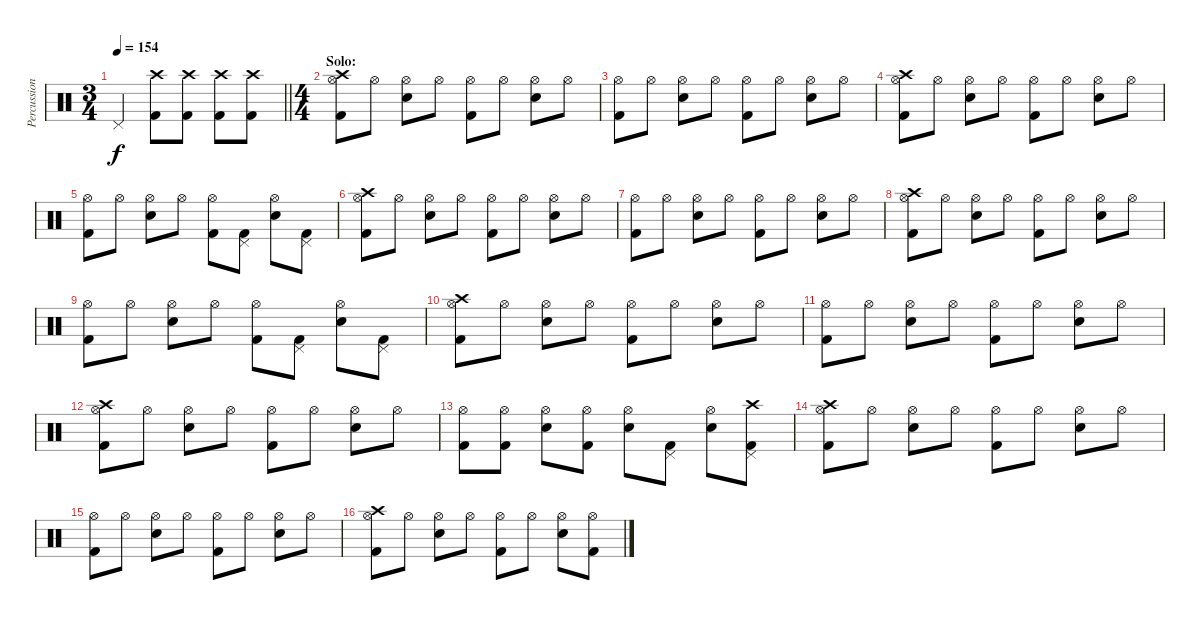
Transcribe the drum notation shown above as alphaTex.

\track ("Percussion" "Percussion") {instrument percussion}
\staff {score}
\articulation defaults
\ts (3 4)
\tempo 154
\clef neutral
\barLineRight lightlight
\ks c "Pedal Hi-Hat (hit)".4{dy f}
("Crash high (hit)" "Kick (hit) 2").8 ("Crash high (hit)" "Kick (hit) 2").8 ("Crash high (hit)" "Kick (hit) 2").8 ("Crash high (hit)" "Kick (hit) 2").8 |
\ts (4 4)
\section ("" "Solo:")
("Hi-Hat (open)" "Crash high (hit)" "Kick (hit) 2").8 "Hi-Hat (open)".8 ("Hi-Hat (open)" "Snare (hit) 2").8 "Hi-Hat (open)".8 ("Hi-Hat (open)" "Kick (hit) 2").8 "Hi-Hat (open)".8 ("Hi-Hat (open)" "Snare (hit) 2").8 "Hi-Hat (open)".8 |
("Hi-Hat (open)" "Kick (hit) 2").8 "Hi-Hat (open)".8 ("Hi-Hat (open)" "Snare (hit) 2").8 "Hi-Hat (open)".8 ("Hi-Hat (open)" "Kick (hit) 2").8 "Hi-Hat (open)".8 ("Hi-Hat (open)" "Snare (hit) 2").8 "Hi-Hat (open)".8 |
("Hi-Hat (open)" "Crash high (hit)" "Kick (hit) 2").8 "Hi-Hat (open)".8 ("Hi-Hat (open)" "Snare (hit) 2").8 "Hi-Hat (open)".8 ("Hi-Hat (open)" "Kick (hit) 2").8 "Hi-Hat (open)".8 ("Hi-Hat (open)" "Snare (hit) 2").8 "Hi-Hat (open)".8 |
("Hi-Hat (open)" "Kick (hit) 2").8 "Hi-Hat (open)".8 ("Hi-Hat (open)" "Snare (hit) 2").8 "Hi-Hat (open)".8 ("Hi-Hat (open)" "Kick (hit) 2").8 ("Pedal Hi-Hat (hit)" "Kick (hit) 2").8 ("Hi-Hat (open)" "Snare (hit) 2").8 ("Pedal Hi-Hat (hit)" "Kick (hit) 2").8 |
("Hi-Hat (open)" "Crash high (hit)" "Kick (hit) 2").8 "Hi-Hat (open)".8 ("Hi-Hat (open)" "Snare (hit) 2").8 "Hi-Hat (open)".8 ("Hi-Hat (open)" "Kick (hit) 2").8 "Hi-Hat (open)".8 ("Hi-Hat (open)" "Snare (hit) 2").8 "Hi-Hat (open)".8 |
("Hi-Hat (open)" "Kick (hit) 2").8 "Hi-Hat (open)".8 ("Hi-Hat (open)" "Snare (hit) 2").8 "Hi-Hat (open)".8 ("Hi-Hat (open)" "Kick (hit) 2").8 "Hi-Hat (open)".8 ("Hi-Hat (open)" "Snare (hit) 2").8 "Hi-Hat (open)".8 |
("Hi-Hat (open)" "Crash high (hit)" "Kick (hit) 2").8 "Hi-Hat (open)".8 ("Hi-Hat (open)" "Snare (hit) 2").8 "Hi-Hat (open)".8 ("Hi-Hat (open)" "Kick (hit) 2").8 "Hi-Hat (open)".8 ("Hi-Hat (open)" "Snare (hit) 2").8 "Hi-Hat (open)".8 |
("Hi-Hat (open)" "Kick (hit) 2").8 "Hi-Hat (open)".8 ("Hi-Hat (open)" "Snare (hit) 2").8 "Hi-Hat (open)".8 ("Hi-Hat (open)" "Kick (hit) 2").8 ("Pedal Hi-Hat (hit)" "Kick (hit) 2").8 ("Hi-Hat (open)" "Snare (hit) 2").8 ("Pedal Hi-Hat (hit)" "Kick (hit) 2").8 |
("Hi-Hat (open)" "Crash high (hit)" "Kick (hit) 2").8 "Hi-Hat (open)".8 ("Hi-Hat (open)" "Snare (hit) 2").8 "Hi-Hat (open)".8 ("Hi-Hat (open)" "Kick (hit) 2").8 "Hi-Hat (open)".8 ("Hi-Hat (open)" "Snare (hit) 2").8 "Hi-Hat (open)".8 |
("Hi-Hat (open)" "Kick (hit) 2").8 "Hi-Hat (open)".8 ("Hi-Hat (open)" "Snare (hit) 2").8 "Hi-Hat (open)".8 ("Hi-Hat (open)" "Kick (hit) 2").8 "Hi-Hat (open)".8 ("Hi-Hat (open)" "Snare (hit) 2").8 "Hi-Hat (open)".8 |
("Hi-Hat (open)" "Crash high (hit)" "Kick (hit) 2").8 "Hi-Hat (open)".8 ("Hi-Hat (open)" "Snare (hit) 2").8 "Hi-Hat (open)".8 ("Hi-Hat (open)" "Kick (hit) 2").8 "Hi-Hat (open)".8 ("Hi-Hat (open)" "Snare (hit) 2").8 "Hi-Hat (open)".8 |
("Hi-Hat (open)" "Kick (hit) 2").8 ("Hi-Hat (open)" "Kick (hit) 2").8 ("Hi-Hat (open)" "Snare (hit) 2").8 ("Hi-Hat (open)" "Kick (hit) 2").8 ("Hi-Hat (open)" "Snare (hit) 2").8 ("Pedal Hi-Hat (hit)" "Kick (hit) 2").8 ("Hi-Hat (open)" "Snare (hit) 2").8 ("Pedal Hi-Hat (hit)" "Crash high (hit)" "Kick (hit) 2").8 |
("Hi-Hat (open)" "Crash high (hit)" "Kick (hit) 2").8 "Hi-Hat (open)".8 ("Hi-Hat (open)" "Snare (hit) 2").8 "Hi-Hat (open)".8 ("Hi-Hat (open)" "Kick (hit) 2").8 "Hi-Hat (open)".8 ("Hi-Hat (open)" "Snare (hit) 2").8 "Hi-Hat (open)".8 |
("Hi-Hat (open)" "Kick (hit) 2").8 "Hi-Hat (open)".8 ("Hi-Hat (open)" "Snare (hit) 2").8 "Hi-Hat (open)".8 ("Hi-Hat (open)" "Kick (hit) 2").8 "Hi-Hat (open)".8 ("Hi-Hat (open)" "Snare (hit) 2").8 "Hi-Hat (open)".8 |
("Hi-Hat (open)" "Crash high (hit)" "Kick (hit) 2").8 "Hi-Hat (open)".8 ("Hi-Hat (open)" "Snare (hit) 2").8 "Hi-Hat (open)".8 ("Hi-Hat (open)" "Kick (hit) 2").8 "Hi-Hat (open)".8 ("Hi-Hat (open)" "Snare (hit) 2").8 ("Hi-Hat (open)" "Kick (hit) 2").8
